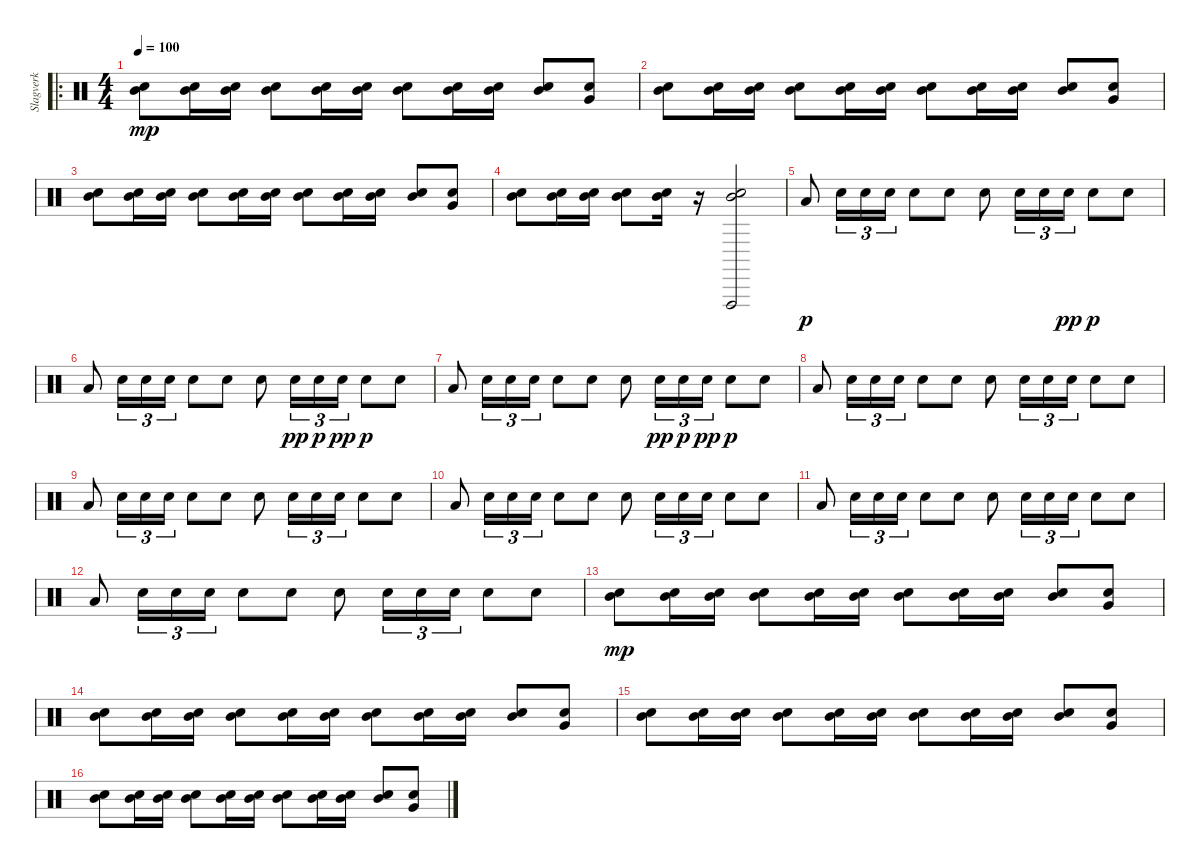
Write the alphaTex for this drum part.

\track ("Slagverk" "Slagverk") {instrument percussion}
\staff {score}
\articulation defaults
\ro
\ts (4 4)
\tempo 100
\clef neutral
\ks c
("Mid Tom (hit)" "Snare (hit) 2").8{dy mp} ("Mid Tom (hit)" "Snare (hit) 2").16 ("Mid Tom (hit)" "Snare (hit) 2").16 ("Mid Tom (hit)" "Snare (hit) 2").8 ("Mid Tom (hit)" "Snare (hit) 2").16 ("Mid Tom (hit)" "Snare (hit) 2").16 ("Mid Tom (hit)" "Snare (hit) 2").8 ("Mid Tom (hit)" "Snare (hit) 2").16 ("Mid Tom (hit)" "Snare (hit) 2").16 ("Mid Tom (hit)" "Snare (hit) 2").8 ("Very Low Tom (hit)" "Snare (hit) 2").8 |
("Mid Tom (hit)" "Snare (hit) 2").8 ("Mid Tom (hit)" "Snare (hit) 2").16 ("Mid Tom (hit)" "Snare (hit) 2").16 ("Mid Tom (hit)" "Snare (hit) 2").8 ("Mid Tom (hit)" "Snare (hit) 2").16 ("Mid Tom (hit)" "Snare (hit) 2").16 ("Mid Tom (hit)" "Snare (hit) 2").8 ("Mid Tom (hit)" "Snare (hit) 2").16 ("Mid Tom (hit)" "Snare (hit) 2").16 ("Mid Tom (hit)" "Snare (hit) 2").8 ("Very Low Tom (hit)" "Snare (hit) 2").8 |
("Mid Tom (hit)" "Snare (hit) 2").8 ("Mid Tom (hit)" "Snare (hit) 2").16 ("Mid Tom (hit)" "Snare (hit) 2").16 ("Mid Tom (hit)" "Snare (hit) 2").8 ("Mid Tom (hit)" "Snare (hit) 2").16 ("Mid Tom (hit)" "Snare (hit) 2").16 ("Mid Tom (hit)" "Snare (hit) 2").8 ("Mid Tom (hit)" "Snare (hit) 2").16 ("Mid Tom (hit)" "Snare (hit) 2").16 ("Mid Tom (hit)" "Snare (hit) 2").8 ("Very Low Tom (hit)" "Snare (hit) 2").8 |
("Mid Tom (hit)" "Snare (hit) 2").8 ("Mid Tom (hit)" "Snare (hit) 2").16 ("Mid Tom (hit)" "Snare (hit) 2").16 ("Mid Tom (hit)" "Snare (hit) 2").8 ("Mid Tom (hit)" "Snare (hit) 2").16 r.16 ("Mid Tom (hit)" "Snare (hit) 2" "Vibraslap (hit)").2 |
"Low Floor Tom (hit)".8{dy p} "Snare (hit) 2".16{tu (3 2)} "Snare (hit) 2".16{tu (3 2)} "Snare (hit) 2".16{tu (3 2)} "Snare (hit) 2".8 "Snare (hit) 2".8 "Snare (hit) 2".8 "Snare (hit) 2".16{tu (3 2)} "Snare (hit) 2".16{tu (3 2)} "Snare (hit) 2".16{tu (3 2) dy pp} "Snare (hit) 2".8{dy p} "Snare (hit) 2".8 |
"Low Floor Tom (hit)".8 "Snare (hit) 2".16{tu (3 2)} "Snare (hit) 2".16{tu (3 2)} "Snare (hit) 2".16{tu (3 2)} "Snare (hit) 2".8 "Snare (hit) 2".8 "Snare (hit) 2".8 "Snare (hit) 2".16{tu (3 2) dy pp} "Snare (hit) 2".16{tu (3 2) dy p} "Snare (hit) 2".16{tu (3 2) dy pp} "Snare (hit) 2".8{dy p} "Snare (hit) 2".8 |
"Low Floor Tom (hit)".8 "Snare (hit) 2".16{tu (3 2)} "Snare (hit) 2".16{tu (3 2)} "Snare (hit) 2".16{tu (3 2)} "Snare (hit) 2".8 "Snare (hit) 2".8 "Snare (hit) 2".8 "Snare (hit) 2".16{tu (3 2) dy pp} "Snare (hit) 2".16{tu (3 2) dy p} "Snare (hit) 2".16{tu (3 2) dy pp} "Snare (hit) 2".8{dy p} "Snare (hit) 2".8 |
"Low Floor Tom (hit)".8 "Snare (hit) 2".16{tu (3 2)} "Snare (hit) 2".16{tu (3 2)} "Snare (hit) 2".16{tu (3 2)} "Snare (hit) 2".8 "Snare (hit) 2".8 "Snare (hit) 2".8 "Snare (hit) 2".16{tu (3 2)} "Snare (hit) 2".16{tu (3 2)} "Snare (hit) 2".16{tu (3 2)} "Snare (hit) 2".8 "Snare (hit) 2".8 |
"Low Floor Tom (hit)".8 "Snare (hit) 2".16{tu (3 2)} "Snare (hit) 2".16{tu (3 2)} "Snare (hit) 2".16{tu (3 2)} "Snare (hit) 2".8 "Snare (hit) 2".8 "Snare (hit) 2".8 "Snare (hit) 2".16{tu (3 2)} "Snare (hit) 2".16{tu (3 2)} "Snare (hit) 2".16{tu (3 2)} "Snare (hit) 2".8 "Snare (hit) 2".8 |
"Low Floor Tom (hit)".8 "Snare (hit) 2".16{tu (3 2)} "Snare (hit) 2".16{tu (3 2)} "Snare (hit) 2".16{tu (3 2)} "Snare (hit) 2".8 "Snare (hit) 2".8 "Snare (hit) 2".8 "Snare (hit) 2".16{tu (3 2)} "Snare (hit) 2".16{tu (3 2)} "Snare (hit) 2".16{tu (3 2)} "Snare (hit) 2".8 "Snare (hit) 2".8 |
"Low Floor Tom (hit)".8 "Snare (hit) 2".16{tu (3 2)} "Snare (hit) 2".16{tu (3 2)} "Snare (hit) 2".16{tu (3 2)} "Snare (hit) 2".8 "Snare (hit) 2".8 "Snare (hit) 2".8 "Snare (hit) 2".16{tu (3 2)} "Snare (hit) 2".16{tu (3 2)} "Snare (hit) 2".16{tu (3 2)} "Snare (hit) 2".8 "Snare (hit) 2".8 |
"Low Floor Tom (hit)".8 "Snare (hit) 2".16{tu (3 2)} "Snare (hit) 2".16{tu (3 2)} "Snare (hit) 2".16{tu (3 2)} "Snare (hit) 2".8 "Snare (hit) 2".8 "Snare (hit) 2".8 "Snare (hit) 2".16{tu (3 2)} "Snare (hit) 2".16{tu (3 2)} "Snare (hit) 2".16{tu (3 2)} "Snare (hit) 2".8 "Snare (hit) 2".8 |
("Mid Tom (hit)" "Snare (hit) 2").8{dy mp} ("Mid Tom (hit)" "Snare (hit) 2").16 ("Mid Tom (hit)" "Snare (hit) 2").16 ("Mid Tom (hit)" "Snare (hit) 2").8 ("Mid Tom (hit)" "Snare (hit) 2").16 ("Mid Tom (hit)" "Snare (hit) 2").16 ("Mid Tom (hit)" "Snare (hit) 2").8 ("Mid Tom (hit)" "Snare (hit) 2").16 ("Mid Tom (hit)" "Snare (hit) 2").16 ("Mid Tom (hit)" "Snare (hit) 2").8 ("Very Low Tom (hit)" "Snare (hit) 2").8 |
("Mid Tom (hit)" "Snare (hit) 2").8 ("Mid Tom (hit)" "Snare (hit) 2").16 ("Mid Tom (hit)" "Snare (hit) 2").16 ("Mid Tom (hit)" "Snare (hit) 2").8 ("Mid Tom (hit)" "Snare (hit) 2").16 ("Mid Tom (hit)" "Snare (hit) 2").16 ("Mid Tom (hit)" "Snare (hit) 2").8 ("Mid Tom (hit)" "Snare (hit) 2").16 ("Mid Tom (hit)" "Snare (hit) 2").16 ("Mid Tom (hit)" "Snare (hit) 2").8 ("Very Low Tom (hit)" "Snare (hit) 2").8 |
("Mid Tom (hit)" "Snare (hit) 2").8 ("Mid Tom (hit)" "Snare (hit) 2").16 ("Mid Tom (hit)" "Snare (hit) 2").16 ("Mid Tom (hit)" "Snare (hit) 2").8 ("Mid Tom (hit)" "Snare (hit) 2").16 ("Mid Tom (hit)" "Snare (hit) 2").16 ("Mid Tom (hit)" "Snare (hit) 2").8 ("Mid Tom (hit)" "Snare (hit) 2").16 ("Mid Tom (hit)" "Snare (hit) 2").16 ("Mid Tom (hit)" "Snare (hit) 2").8 ("Very Low Tom (hit)" "Snare (hit) 2").8 |
("Mid Tom (hit)" "Snare (hit) 2").8 ("Mid Tom (hit)" "Snare (hit) 2").16 ("Mid Tom (hit)" "Snare (hit) 2").16 ("Mid Tom (hit)" "Snare (hit) 2").8 ("Mid Tom (hit)" "Snare (hit) 2").16 ("Mid Tom (hit)" "Snare (hit) 2").16 ("Mid Tom (hit)" "Snare (hit) 2").8 ("Mid Tom (hit)" "Snare (hit) 2").16 ("Mid Tom (hit)" "Snare (hit) 2").16 ("Mid Tom (hit)" "Snare (hit) 2").8 ("Very Low Tom (hit)" "Snare (hit) 2").8
